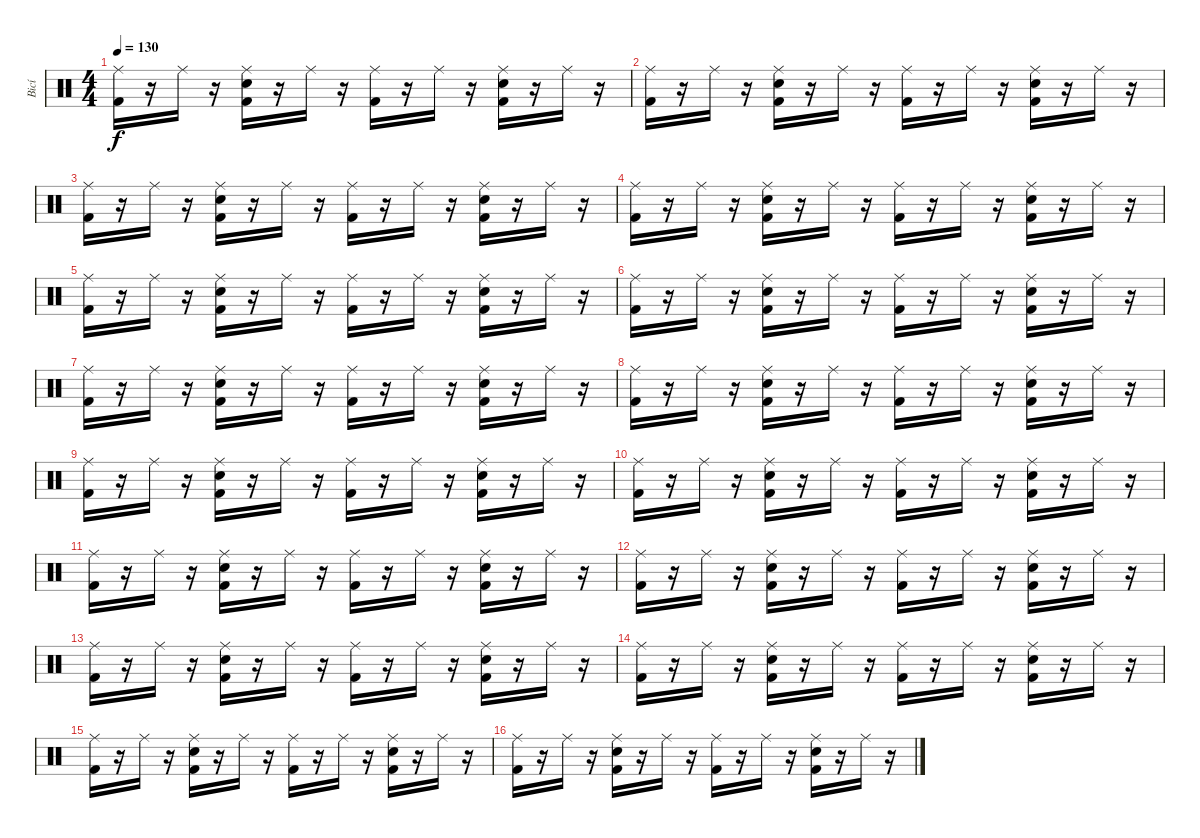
\track ("Bicí" "Bicí") {instrument percussion}
\staff {score}
\articulation defaults
\ts (4 4)
\tempo 130
\clef neutral
\ks c
("Ride (middle)" "Kick (hit) 2").16{dy f} r.16 "Ride (middle)".16 r.16 ("Ride (middle)" "Electric Snare (hit)" "Kick (hit) 2").16 r.16 "Ride (middle)".16 r.16 ("Ride (middle)" "Kick (hit) 2").16 r.16 "Ride (middle)".16 r.16 ("Ride (middle)" "Electric Snare (hit)" "Kick (hit) 2").16 r.16 "Ride (middle)".16 r.16 |
("Ride (middle)" "Kick (hit) 2").16 r.16 "Ride (middle)".16 r.16 ("Ride (middle)" "Electric Snare (hit)" "Kick (hit) 2").16 r.16 "Ride (middle)".16 r.16 ("Ride (middle)" "Kick (hit) 2").16 r.16 "Ride (middle)".16 r.16 ("Ride (middle)" "Electric Snare (hit)" "Kick (hit) 2").16 r.16 "Ride (middle)".16 r.16 |
("Ride (middle)" "Kick (hit) 2").16 r.16 "Ride (middle)".16 r.16 ("Ride (middle)" "Electric Snare (hit)" "Kick (hit) 2").16 r.16 "Ride (middle)".16 r.16 ("Ride (middle)" "Kick (hit) 2").16 r.16 "Ride (middle)".16 r.16 ("Ride (middle)" "Electric Snare (hit)" "Kick (hit) 2").16 r.16 "Ride (middle)".16 r.16 |
("Ride (middle)" "Kick (hit) 2").16 r.16 "Ride (middle)".16 r.16 ("Ride (middle)" "Electric Snare (hit)" "Kick (hit) 2").16 r.16 "Ride (middle)".16 r.16 ("Ride (middle)" "Kick (hit) 2").16 r.16 "Ride (middle)".16 r.16 ("Ride (middle)" "Electric Snare (hit)" "Kick (hit) 2").16 r.16 "Ride (middle)".16 r.16 |
("Ride (middle)" "Kick (hit) 2").16 r.16 "Ride (middle)".16 r.16 ("Ride (middle)" "Electric Snare (hit)" "Kick (hit) 2").16 r.16 "Ride (middle)".16 r.16 ("Ride (middle)" "Kick (hit) 2").16 r.16 "Ride (middle)".16 r.16 ("Ride (middle)" "Electric Snare (hit)" "Kick (hit) 2").16 r.16 "Ride (middle)".16 r.16 |
("Ride (middle)" "Kick (hit) 2").16 r.16 "Ride (middle)".16 r.16 ("Ride (middle)" "Electric Snare (hit)" "Kick (hit) 2").16 r.16 "Ride (middle)".16 r.16 ("Ride (middle)" "Kick (hit) 2").16 r.16 "Ride (middle)".16 r.16 ("Ride (middle)" "Electric Snare (hit)" "Kick (hit) 2").16 r.16 "Ride (middle)".16 r.16 |
("Ride (middle)" "Kick (hit) 2").16 r.16 "Ride (middle)".16 r.16 ("Ride (middle)" "Electric Snare (hit)" "Kick (hit) 2").16 r.16 "Ride (middle)".16 r.16 ("Ride (middle)" "Kick (hit) 2").16 r.16 "Ride (middle)".16 r.16 ("Ride (middle)" "Electric Snare (hit)" "Kick (hit) 2").16 r.16 "Ride (middle)".16 r.16 |
("Ride (middle)" "Kick (hit) 2").16 r.16 "Ride (middle)".16 r.16 ("Ride (middle)" "Electric Snare (hit)" "Kick (hit) 2").16 r.16 "Ride (middle)".16 r.16 ("Ride (middle)" "Kick (hit) 2").16 r.16 "Ride (middle)".16 r.16 ("Ride (middle)" "Electric Snare (hit)" "Kick (hit) 2").16 r.16 "Ride (middle)".16 r.16 |
("Ride (middle)" "Kick (hit) 2").16 r.16 "Ride (middle)".16 r.16 ("Ride (middle)" "Electric Snare (hit)" "Kick (hit) 2").16 r.16 "Ride (middle)".16 r.16 ("Ride (middle)" "Kick (hit) 2").16 r.16 "Ride (middle)".16 r.16 ("Ride (middle)" "Electric Snare (hit)" "Kick (hit) 2").16 r.16 "Ride (middle)".16 r.16 |
("Ride (middle)" "Kick (hit) 2").16 r.16 "Ride (middle)".16 r.16 ("Ride (middle)" "Electric Snare (hit)" "Kick (hit) 2").16 r.16 "Ride (middle)".16 r.16 ("Ride (middle)" "Kick (hit) 2").16 r.16 "Ride (middle)".16 r.16 ("Ride (middle)" "Electric Snare (hit)" "Kick (hit) 2").16 r.16 "Ride (middle)".16 r.16 |
("Ride (middle)" "Kick (hit) 2").16 r.16 "Ride (middle)".16 r.16 ("Ride (middle)" "Electric Snare (hit)" "Kick (hit) 2").16 r.16 "Ride (middle)".16 r.16 ("Ride (middle)" "Kick (hit) 2").16 r.16 "Ride (middle)".16 r.16 ("Ride (middle)" "Electric Snare (hit)" "Kick (hit) 2").16 r.16 "Ride (middle)".16 r.16 |
("Ride (middle)" "Kick (hit) 2").16 r.16 "Ride (middle)".16 r.16 ("Ride (middle)" "Electric Snare (hit)" "Kick (hit) 2").16 r.16 "Ride (middle)".16 r.16 ("Ride (middle)" "Kick (hit) 2").16 r.16 "Ride (middle)".16 r.16 ("Ride (middle)" "Electric Snare (hit)" "Kick (hit) 2").16 r.16 "Ride (middle)".16 r.16 |
("Ride (middle)" "Kick (hit) 2").16 r.16 "Ride (middle)".16 r.16 ("Ride (middle)" "Electric Snare (hit)" "Kick (hit) 2").16 r.16 "Ride (middle)".16 r.16 ("Ride (middle)" "Kick (hit) 2").16 r.16 "Ride (middle)".16 r.16 ("Ride (middle)" "Electric Snare (hit)" "Kick (hit) 2").16 r.16 "Ride (middle)".16 r.16 |
("Ride (middle)" "Kick (hit) 2").16 r.16 "Ride (middle)".16 r.16 ("Ride (middle)" "Electric Snare (hit)" "Kick (hit) 2").16 r.16 "Ride (middle)".16 r.16 ("Ride (middle)" "Kick (hit) 2").16 r.16 "Ride (middle)".16 r.16 ("Ride (middle)" "Electric Snare (hit)" "Kick (hit) 2").16 r.16 "Ride (middle)".16 r.16 |
("Ride (middle)" "Kick (hit) 2").16 r.16 "Ride (middle)".16 r.16 ("Ride (middle)" "Electric Snare (hit)" "Kick (hit) 2").16 r.16 "Ride (middle)".16 r.16 ("Ride (middle)" "Kick (hit) 2").16 r.16 "Ride (middle)".16 r.16 ("Ride (middle)" "Electric Snare (hit)" "Kick (hit) 2").16 r.16 "Ride (middle)".16 r.16 |
("Ride (middle)" "Kick (hit) 2").16 r.16 "Ride (middle)".16 r.16 ("Ride (middle)" "Electric Snare (hit)" "Kick (hit) 2").16 r.16 "Ride (middle)".16 r.16 ("Ride (middle)" "Kick (hit) 2").16 r.16 "Ride (middle)".16 r.16 ("Ride (middle)" "Electric Snare (hit)" "Kick (hit) 2").16 r.16 "Ride (middle)".16 r.16
